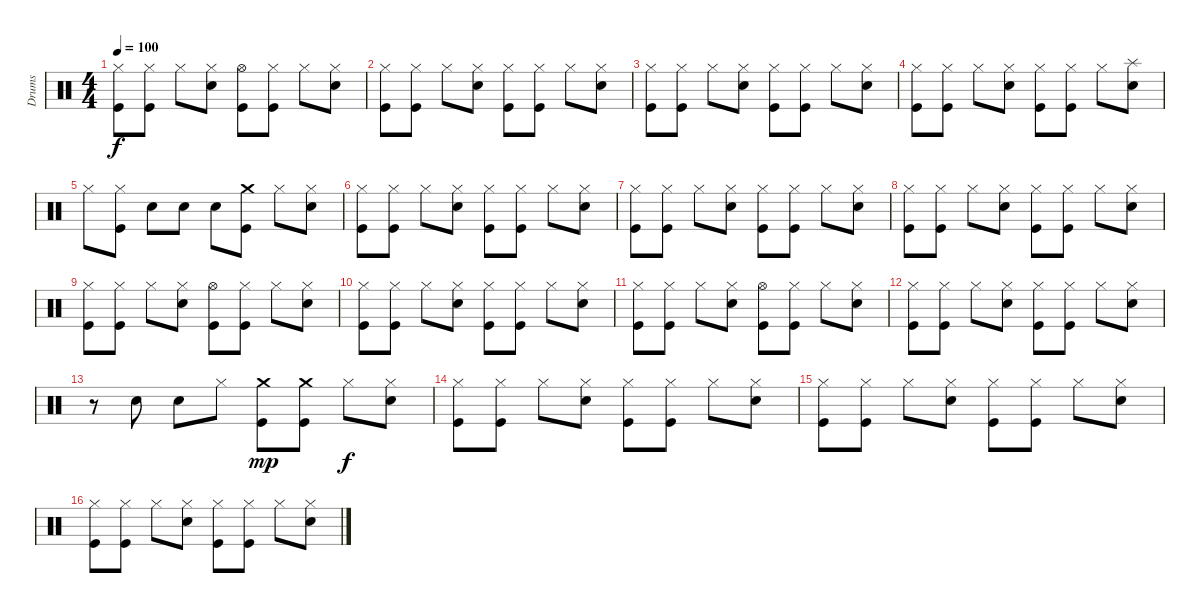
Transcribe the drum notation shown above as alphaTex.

\track ("Drums" "Drums") {instrument percussion}
\staff {score}
\articulation defaults
\ts (4 4)
\tempo 100
\clef neutral
\ks c
("Hi-Hat (closed)" "Kick (hit)").8{dy f} ("Hi-Hat (closed)" "Kick (hit)").8 "Hi-Hat (closed)".8 ("Hi-Hat (closed)" "Snare (hit) 2").8 ("Hi-Hat (open)" "Kick (hit)").8 ("Hi-Hat (closed)" "Kick (hit)").8 "Hi-Hat (closed)".8 ("Hi-Hat (closed)" "Snare (hit) 2").8 |
("Hi-Hat (closed)" "Kick (hit)").8 ("Hi-Hat (closed)" "Kick (hit)").8 "Hi-Hat (closed)".8 ("Hi-Hat (closed)" "Snare (hit) 2").8 ("Hi-Hat (closed)" "Kick (hit)").8 ("Hi-Hat (closed)" "Kick (hit)").8 "Hi-Hat (closed)".8 ("Hi-Hat (closed)" "Snare (hit) 2").8 |
("Hi-Hat (closed)" "Kick (hit)").8 ("Hi-Hat (closed)" "Kick (hit)").8 "Hi-Hat (closed)".8 ("Hi-Hat (closed)" "Snare (hit) 2").8 ("Hi-Hat (closed)" "Kick (hit)").8 ("Hi-Hat (closed)" "Kick (hit)").8 "Hi-Hat (closed)".8 ("Hi-Hat (closed)" "Snare (hit) 2").8 |
("Hi-Hat (closed)" "Kick (hit)").8 ("Hi-Hat (closed)" "Kick (hit)").8 "Hi-Hat (closed)".8 ("Hi-Hat (closed)" "Snare (hit) 2").8 ("Hi-Hat (closed)" "Kick (hit)").8 ("Hi-Hat (closed)" "Kick (hit)").8 "Hi-Hat (closed)".8 ("Splash (hit)" "Snare (hit) 2").8 |
"Hi-Hat (closed)".8 ("Hi-Hat (closed)" "Kick (hit)").8 "Snare (hit) 2".8 "Snare (hit) 2".8 "Snare (hit) 2".8 ("Crash medium (hit)" "Kick (hit)").8 "Hi-Hat (closed)".8 ("Hi-Hat (closed)" "Snare (hit) 2").8 |
("Hi-Hat (closed)" "Kick (hit)").8 ("Hi-Hat (closed)" "Kick (hit)").8 "Hi-Hat (closed)".8 ("Hi-Hat (closed)" "Snare (hit) 2").8 ("Hi-Hat (closed)" "Kick (hit)").8 ("Hi-Hat (closed)" "Kick (hit)").8 "Hi-Hat (closed)".8 ("Hi-Hat (closed)" "Snare (hit) 2").8 |
("Hi-Hat (closed)" "Kick (hit)").8 ("Hi-Hat (closed)" "Kick (hit)").8 "Hi-Hat (closed)".8 ("Hi-Hat (closed)" "Snare (hit) 2").8 ("Hi-Hat (closed)" "Kick (hit)").8 ("Hi-Hat (closed)" "Kick (hit)").8 "Hi-Hat (closed)".8 ("Hi-Hat (closed)" "Snare (hit) 2").8 |
("Hi-Hat (closed)" "Kick (hit)").8 ("Hi-Hat (closed)" "Kick (hit)").8 "Hi-Hat (closed)".8 ("Hi-Hat (closed)" "Snare (hit) 2").8 ("Hi-Hat (closed)" "Kick (hit)").8 ("Hi-Hat (closed)" "Kick (hit)").8 "Hi-Hat (closed)".8 ("Hi-Hat (closed)" "Snare (hit) 2").8 |
("Hi-Hat (closed)" "Kick (hit)").8 ("Hi-Hat (closed)" "Kick (hit)").8 "Hi-Hat (closed)".8 ("Hi-Hat (closed)" "Snare (hit) 2").8 ("Hi-Hat (open)" "Kick (hit)").8 ("Hi-Hat (closed)" "Kick (hit)").8 "Hi-Hat (closed)".8 ("Hi-Hat (closed)" "Snare (hit) 2").8 |
("Hi-Hat (closed)" "Kick (hit)").8 ("Hi-Hat (closed)" "Kick (hit)").8 "Hi-Hat (closed)".8 ("Hi-Hat (closed)" "Snare (hit) 2").8 ("Hi-Hat (closed)" "Kick (hit)").8 ("Hi-Hat (closed)" "Kick (hit)").8 "Hi-Hat (closed)".8 ("Hi-Hat (closed)" "Snare (hit) 2").8 |
("Hi-Hat (closed)" "Kick (hit)").8 ("Hi-Hat (closed)" "Kick (hit)").8 "Hi-Hat (closed)".8 ("Hi-Hat (closed)" "Snare (hit) 2").8 ("Hi-Hat (open)" "Kick (hit)").8 ("Hi-Hat (closed)" "Kick (hit)").8 "Hi-Hat (closed)".8 ("Hi-Hat (closed)" "Snare (hit) 2").8 |
("Hi-Hat (closed)" "Kick (hit)").8 ("Hi-Hat (closed)" "Kick (hit)").8 "Hi-Hat (closed)".8 ("Hi-Hat (closed)" "Snare (hit) 2").8 ("Hi-Hat (closed)" "Kick (hit)").8 ("Hi-Hat (closed)" "Kick (hit)").8 "Hi-Hat (closed)".8 ("Hi-Hat (closed)" "Snare (hit) 2").8 |
r.8 "Snare (hit) 2".8 "Snare (hit) 2".8 "Hi-Hat (closed)".8 ("Crash medium (hit)" "Kick (hit)").8{dy mp} ("Crash medium (hit)" "Kick (hit)").8 "Hi-Hat (closed)".8{dy f} ("Hi-Hat (closed)" "Snare (hit) 2").8 |
("Hi-Hat (closed)" "Kick (hit)").8 ("Hi-Hat (closed)" "Kick (hit)").8 "Hi-Hat (closed)".8 ("Hi-Hat (closed)" "Snare (hit) 2").8 ("Hi-Hat (closed)" "Kick (hit)").8 ("Hi-Hat (closed)" "Kick (hit)").8 "Hi-Hat (closed)".8 ("Hi-Hat (closed)" "Snare (hit) 2").8 |
("Hi-Hat (closed)" "Kick (hit)").8 ("Hi-Hat (closed)" "Kick (hit)").8 "Hi-Hat (closed)".8 ("Hi-Hat (closed)" "Snare (hit) 2").8 ("Hi-Hat (closed)" "Kick (hit)").8 ("Hi-Hat (closed)" "Kick (hit)").8 "Hi-Hat (closed)".8 ("Hi-Hat (closed)" "Snare (hit) 2").8 |
("Hi-Hat (closed)" "Kick (hit)").8 ("Hi-Hat (closed)" "Kick (hit)").8 "Hi-Hat (closed)".8 ("Hi-Hat (closed)" "Snare (hit) 2").8 ("Hi-Hat (closed)" "Kick (hit)").8 ("Hi-Hat (closed)" "Kick (hit)").8 "Hi-Hat (closed)".8 ("Hi-Hat (closed)" "Snare (hit) 2").8
